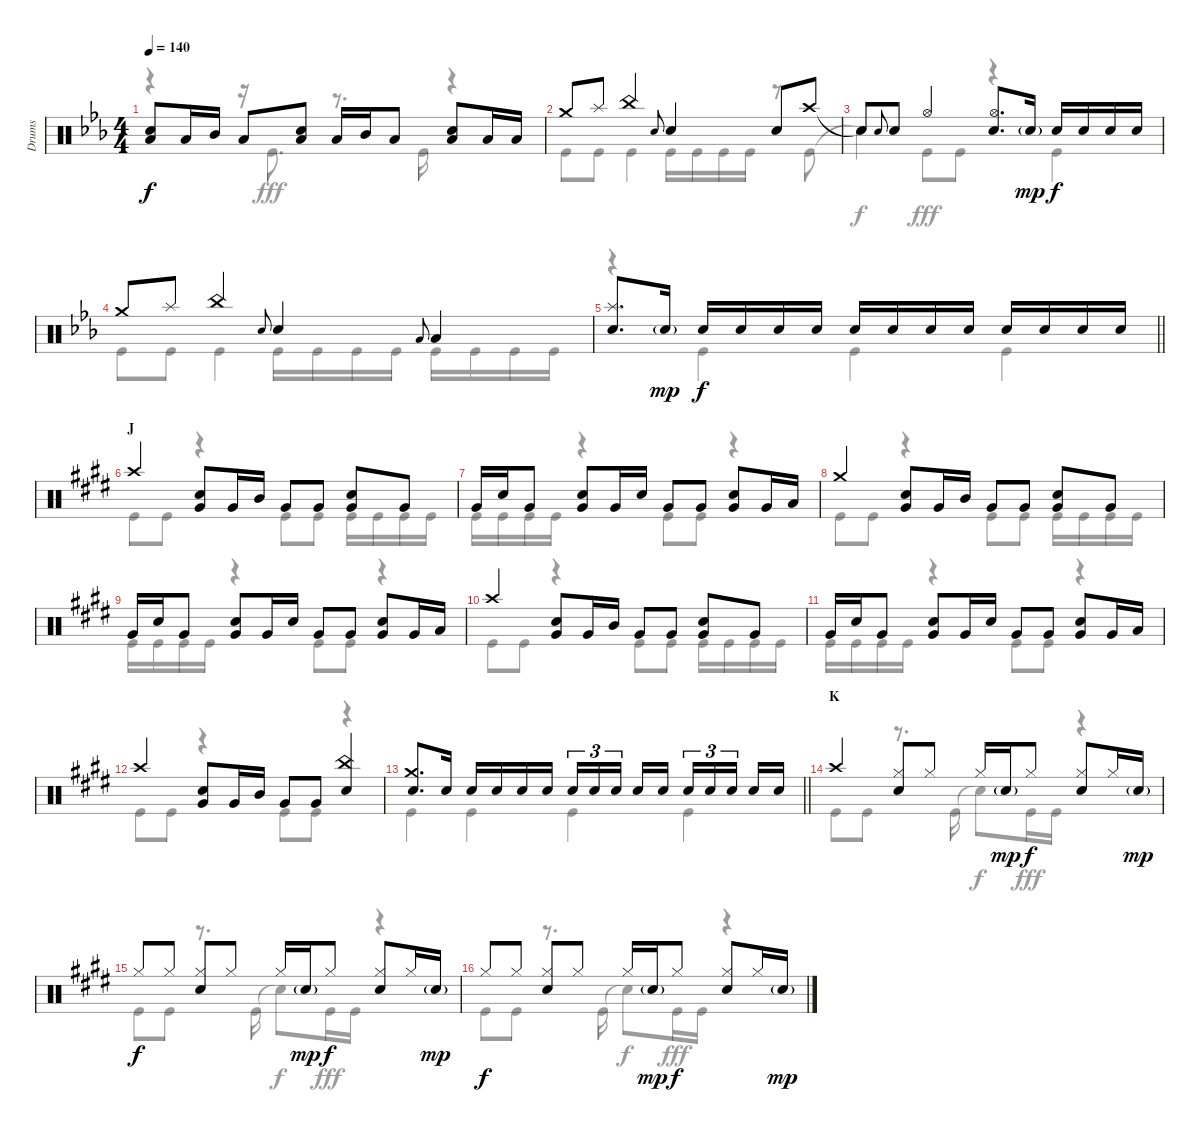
\track ("Drums" "Drums") {instrument percussion}
\staff {score}
\articulation defaults
\voice
\ts (4 4)
\tempo 140
\clef neutral
\ks eb
("Snare (hit) 2" "Low Tom (hit)").8{dy f} "Low Tom (hit)".16 "Mid Tom (hit)".16 "Low Tom (hit)".8 ("Snare (hit) 2" "Low Tom (hit)").8 "Low Tom (hit)".16 "Mid Tom (hit)".16 "Low Tom (hit)".8 ("Snare (hit) 2" "Low Tom (hit)").8 "Low Tom (hit)".16 "Low Tom (hit)".16 |
"Crash medium (hit)".8 "Splash (hit)".8 "China (hit)".4 "Snare (hit) 2".8{gr onbeat} "Snare (hit) 2".4 "Snare (hit) 2".8 "Crash high (hit)".8 |
"Snare (hit)"{t}.8 "Snare (hit) 2".8{gr onbeat} "Snare (hit) 2".8 "Hi-Hat (open)".4 ("Hi-Hat (open)" "Snare (hit) 2").8{d} "Snare (hit) 2"{g}.16{dy mp} "Snare (hit) 2".16{dy f} "Snare (hit) 2".16 "Snare (hit) 2".16 "Snare (hit) 2".16 |
"Crash medium (hit)".8 "Splash (hit)".8 "China (hit)".4 "Snare (hit) 2".8{gr onbeat} "Snare (hit) 2".4 "Low Tom (hit)".8{gr onbeat} "Low Tom (hit)".4 |
\barLineRight lightlight
("Splash (hit)" "Snare (hit) 2").8{d} "Snare (hit) 2"{g}.16{dy mp} "Snare (hit) 2".16{dy f} "Snare (hit) 2".16 "Snare (hit) 2".16 "Snare (hit) 2".16 "Snare (hit) 2".16 "Snare (hit) 2".16 "Snare (hit) 2".16 "Snare (hit) 2".16 "Snare (hit) 2".16 "Snare (hit) 2".16 "Snare (hit) 2".16 "Snare (hit) 2".16 |
\section ("" "J")
\ks e "Crash high (hit)".4
("Snare (hit) 2" "Very Low Tom (hit)").8 "Very Low Tom (hit)".16 "Mid Tom (hit)".16 "Very Low Tom (hit)".8 "Very Low Tom (hit)".8 ("Snare (hit) 2" "Very Low Tom (hit)").8 "Very Low Tom (hit)".8 |
"Very Low Tom (hit)".16 "Snare (hit) 2".16 "Very Low Tom (hit)".8 ("Snare (hit) 2" "Very Low Tom (hit)").8 "Very Low Tom (hit)".16 "Snare (hit) 2".16 "Very Low Tom (hit)".8 "Very Low Tom (hit)".8 ("Snare (hit) 2" "Very Low Tom (hit)").8 "Very Low Tom (hit)".16 "Low Tom (hit)".16 |
"Crash medium (hit)".4 ("Snare (hit) 2" "Very Low Tom (hit)").8 "Very Low Tom (hit)".16 "Mid Tom (hit)".16 "Very Low Tom (hit)".8 "Very Low Tom (hit)".8 ("Snare (hit) 2" "Very Low Tom (hit)").8 "Very Low Tom (hit)".8 |
"Very Low Tom (hit)".16 "Snare (hit) 2".16 "Very Low Tom (hit)".8 ("Snare (hit) 2" "Very Low Tom (hit)").8 "Very Low Tom (hit)".16 "Snare (hit) 2".16 "Very Low Tom (hit)".8 "Very Low Tom (hit)".8 ("Snare (hit) 2" "Very Low Tom (hit)").8 "Very Low Tom (hit)".16 "Low Tom (hit)".16 |
"Crash high (hit)".4 ("Snare (hit) 2" "Very Low Tom (hit)").8 "Very Low Tom (hit)".16 "Mid Tom (hit)".16 "Very Low Tom (hit)".8 "Very Low Tom (hit)".8 ("Snare (hit) 2" "Very Low Tom (hit)").8 "Very Low Tom (hit)".8 |
"Very Low Tom (hit)".16 "Snare (hit) 2".16 "Very Low Tom (hit)".8 ("Snare (hit) 2" "Very Low Tom (hit)").8 "Very Low Tom (hit)".16 "Snare (hit) 2".16 "Very Low Tom (hit)".8 "Very Low Tom (hit)".8 ("Snare (hit) 2" "Very Low Tom (hit)").8 "Very Low Tom (hit)".16 "Low Tom (hit)".16 |
"Crash high (hit)".4 ("Snare (hit) 2" "Very Low Tom (hit)").8 "Very Low Tom (hit)".16 "Mid Tom (hit)".16 "Very Low Tom (hit)".8 "Very Low Tom (hit)".8 ("China (hit)" "Snare (hit) 2").4 |
\barLineRight lightlight
("Crash medium (hit)" "Snare (hit) 2").8{d} "Snare (hit) 2".16 "Snare (hit) 2".16 "Snare (hit) 2".16 "Snare (hit) 2".16 "Snare (hit) 2".16 "Snare (hit) 2".16{tu (3 2)} "Snare (hit) 2".16{tu (3 2)} "Snare (hit) 2".16{tu (3 2) beam splitsecondary} "Snare (hit) 2".16 "Snare (hit) 2".16 "Snare (hit) 2".16{tu (3 2)} "Snare (hit) 2".16{tu (3 2)} "Snare (hit) 2".16{tu (3 2) beam splitsecondary} "Snare (hit) 2".16 "Snare (hit) 2".16 |
\section ("" "K")
"Crash high (hit)".4 ("Hi-Hat (closed)" "Snare (hit) 2").8 "Hi-Hat (closed)".8 "Hi-Hat (closed)".16 "Snare (hit) 2"{g}.16{dy mp} "Hi-Hat (closed)".8{dy f} ("Hi-Hat (closed)" "Snare (hit) 2").8 "Hi-Hat (closed)".16 "Snare (hit) 2"{g}.16{dy mp} |
"Hi-Hat (closed)".8{dy f} "Hi-Hat (closed)".8 ("Hi-Hat (closed)" "Snare (hit) 2").8 "Hi-Hat (closed)".8 "Hi-Hat (closed)".16 "Snare (hit) 2"{g}.16{dy mp} "Hi-Hat (closed)".8{dy f} ("Hi-Hat (closed)" "Snare (hit) 2").8 "Hi-Hat (closed)".16 "Snare (hit) 2"{g}.16{dy mp} |
"Hi-Hat (closed)".8{dy f} "Hi-Hat (closed)".8 ("Hi-Hat (closed)" "Snare (hit) 2").8 "Hi-Hat (closed)".8 "Hi-Hat (closed)".16 "Snare (hit) 2"{g}.16{dy mp} "Hi-Hat (closed)".8{dy f} ("Hi-Hat (closed)" "Snare (hit) 2").8 "Hi-Hat (closed)".16 "Snare (hit) 2"{g}.16{dy mp}
\voice
\clef neutral
\ottava regular
\simile none
\ks eb
r.4{dy fff} r.16 "Kick (hit)".8{d} r.8{d} "Kick (hit)".16 r.4 |
"Kick (hit)".8 "Kick (hit)".8 "Kick (hit)".4 "Kick (hit)".16 "Kick (hit)".16 "Kick (hit)".16 "Kick (hit)".16 r.8 "Kick (hit)".8 |
"Snare (hit)"{t}.4{dy f} "Kick (hit)".8{dy fff} "Kick (hit)".8 r.4 "Kick (hit)".4 |
"Kick (hit)".8 "Kick (hit)".8 "Kick (hit)".4 "Kick (hit)".16 "Kick (hit)".16 "Kick (hit)".16 "Kick (hit)".16 "Kick (hit)".16 "Kick (hit)".16 "Kick (hit)".16 "Kick (hit)".16 |
\barLineRight lightlight
r.4 "Kick (hit)".4 "Kick (hit)".4 "Kick (hit)".4 |
\ks e "Kick (hit)".8 "Kick (hit)".8
r.4 "Kick (hit)".8 "Kick (hit)".8 "Kick (hit)".16 "Kick (hit)".16 "Kick (hit)".16 "Kick (hit)".16 |
"Kick (hit)".16 "Kick (hit)".16 "Kick (hit)".16 "Kick (hit)".16 r.4 "Kick (hit)".8 "Kick (hit)".8 r.4 |
"Kick (hit)".8 "Kick (hit)".8 r.4 "Kick (hit)".8 "Kick (hit)".8 "Kick (hit)".16 "Kick (hit)".16 "Kick (hit)".16 "Kick (hit)".16 |
"Kick (hit)".16 "Kick (hit)".16 "Kick (hit)".16 "Kick (hit)".16 r.4 "Kick (hit)".8 "Kick (hit)".8 r.4 |
"Kick (hit)".8 "Kick (hit)".8 r.4 "Kick (hit)".8 "Kick (hit)".8 "Kick (hit)".16 "Kick (hit)".16 "Kick (hit)".16 "Kick (hit)".16 |
"Kick (hit)".16 "Kick (hit)".16 "Kick (hit)".16 "Kick (hit)".16 r.4 "Kick (hit)".8 "Kick (hit)".8 r.4 |
"Kick (hit)".8 "Kick (hit)".8 r.4 "Kick (hit)".8 "Kick (hit)".8 r.4 |
\barLineRight lightlight "Kick (hit)".4 "Kick (hit)".4 "Kick (hit)".4 "Kick (hit)".4
|
"Kick (hit)".8 "Kick (hit)".8 r.8{d} "Kick (hit)".16 "Snare (hit)"{t}.8{dy f} "Kick (hit)".16{dy fff} "Kick (hit)".16 r.4 |
"Kick (hit)".8 "Kick (hit)".8 r.8{d} "Kick (hit)".16 "Snare (hit)"{t}.8{dy f} "Kick (hit)".16{dy fff} "Kick (hit)".16 r.4 |
"Kick (hit)".8 "Kick (hit)".8 r.8{d} "Kick (hit)".16 "Snare (hit)"{t}.8{dy f} "Kick (hit)".16{dy fff} "Kick (hit)".16 r.4
